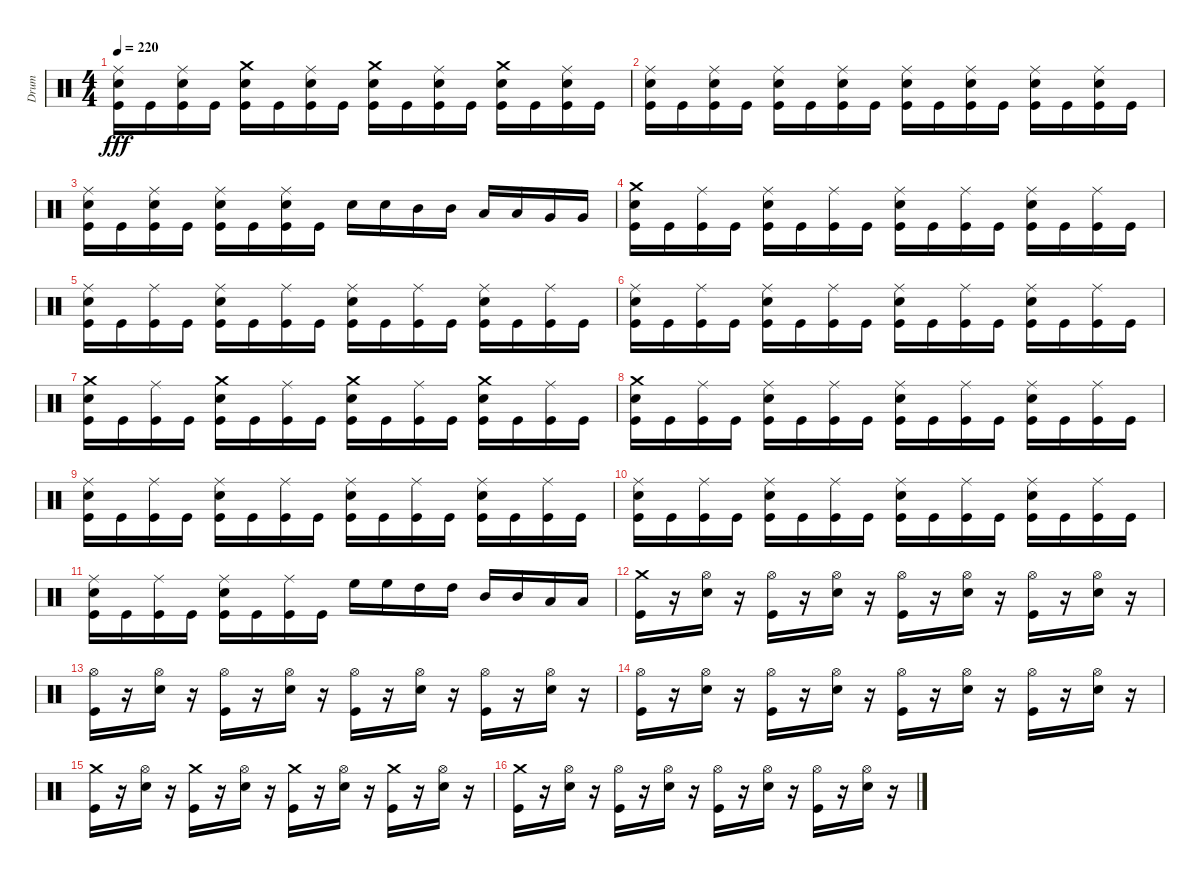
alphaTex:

\track ("Drum" "Drum") {instrument percussion}
\staff {score}
\articulation defaults
\ts (4 4)
\tempo 220
\clef neutral
\ks c
("Snare (hit) 2" "Kick (hit)" "Ride (middle)").16{dy fff} "Kick (hit)".16 ("Kick (hit)" "Snare (hit) 2" "Ride (middle)").16 "Kick (hit)".16 ("Snare (hit) 2" "Kick (hit)" "Crash medium (hit)").16 "Kick (hit)".16 ("Snare (hit) 2" "Kick (hit)" "Ride (middle)").16 "Kick (hit)".16 ("Snare (hit) 2" "Crash medium (hit)" "Kick (hit)").16 "Kick (hit)".16 ("Ride (middle)" "Snare (hit) 2" "Kick (hit)").16 "Kick (hit)".16 ("Snare (hit) 2" "Kick (hit)" "Crash medium (hit)").16 "Kick (hit)".16 ("Kick (hit)" "Snare (hit) 2" "Ride (middle)").16 "Kick (hit)".16 |
("Kick (hit)" "Ride (middle)" "Snare (hit) 2").16 "Kick (hit)".16 ("Kick (hit)" "Ride (middle)" "Snare (hit) 2").16 "Kick (hit)".16 ("Snare (hit) 2" "Kick (hit)" "Ride (middle)").16 "Kick (hit)".16 ("Snare (hit) 2" "Kick (hit)" "Ride (middle)").16 "Kick (hit)".16 ("Ride (middle)" "Snare (hit) 2" "Kick (hit)").16 "Kick (hit)".16 ("Kick (hit)" "Ride (middle)" "Snare (hit) 2").16 "Kick (hit)".16 ("Snare (hit) 2" "Ride (middle)" "Kick (hit)").16 "Kick (hit)".16 ("Snare (hit) 2" "Ride (middle)" "Kick (hit)").16 "Kick (hit)".16 |
("Snare (hit) 2" "Kick (hit)" "Ride (middle)").16 "Kick (hit)".16 ("Snare (hit) 2" "Ride (middle)" "Kick (hit)").16 "Kick (hit)".16 ("Snare (hit) 2" "Kick (hit)" "Ride (middle)").16 "Kick (hit)".16 ("Kick (hit)" "Snare (hit) 2" "Ride (middle)").16 "Kick (hit)".16 "Snare (hit) 2".16 "Snare (hit) 2".16 "Mid Tom (hit)".16 "Mid Tom (hit)".16 "Low Tom (hit)".16 "Low Tom (hit)".16 "Very Low Tom (hit)".16 "Very Low Tom (hit)".16 |
("Kick (hit)" "Crash medium (hit)" "Snare (hit) 2").16 "Kick (hit)".16 ("Ride (middle)" "Kick (hit)").16 "Kick (hit)".16 ("Snare (hit) 2" "Kick (hit)" "Ride (middle)").16 "Kick (hit)".16 ("Ride (middle)" "Kick (hit)").16 "Kick (hit)".16 ("Ride (middle)" "Kick (hit)" "Snare (hit) 2").16 "Kick (hit)".16 ("Ride (middle)" "Kick (hit)").16 "Kick (hit)".16 ("Kick (hit)" "Ride (middle)" "Snare (hit) 2").16 "Kick (hit)".16 ("Kick (hit)" "Ride (middle)").16 "Kick (hit)".16 |
("Kick (hit)" "Ride (middle)" "Snare (hit) 2").16 "Kick (hit)".16 ("Kick (hit)" "Ride (middle)").16 "Kick (hit)".16 ("Snare (hit) 2" "Kick (hit)" "Ride (middle)").16 "Kick (hit)".16 ("Kick (hit)" "Ride (middle)").16 "Kick (hit)".16 ("Ride (middle)" "Kick (hit)" "Snare (hit) 2").16 "Kick (hit)".16 ("Ride (middle)" "Kick (hit)").16 "Kick (hit)".16 ("Ride (middle)" "Snare (hit) 2" "Kick (hit)").16 "Kick (hit)".16 ("Kick (hit)" "Ride (middle)").16 "Kick (hit)".16 |
("Snare (hit) 2" "Ride (middle)" "Kick (hit)").16 "Kick (hit)".16 ("Ride (middle)" "Kick (hit)").16 "Kick (hit)".16 ("Ride (middle)" "Kick (hit)" "Snare (hit) 2").16 "Kick (hit)".16 ("Ride (middle)" "Kick (hit)").16 "Kick (hit)".16 ("Snare (hit) 2" "Ride (middle)" "Kick (hit)").16 "Kick (hit)".16 ("Kick (hit)" "Ride (middle)").16 "Kick (hit)".16 ("Kick (hit)" "Snare (hit) 2" "Ride (middle)").16 "Kick (hit)".16 ("Ride (middle)" "Kick (hit)").16 "Kick (hit)".16 |
("Kick (hit)" "Crash medium (hit)" "Snare (hit) 2").16 "Kick (hit)".16 ("Kick (hit)" "Ride (middle)").16 "Kick (hit)".16 ("Snare (hit) 2" "Crash medium (hit)" "Kick (hit)").16 "Kick (hit)".16 ("Ride (middle)" "Kick (hit)").16 "Kick (hit)".16 ("Crash medium (hit)" "Snare (hit) 2" "Kick (hit)").16 "Kick (hit)".16 ("Ride (middle)" "Kick (hit)").16 "Kick (hit)".16 ("Crash medium (hit)" "Snare (hit) 2" "Kick (hit)").16 "Kick (hit)".16 ("Ride (middle)" "Kick (hit)").16 "Kick (hit)".16 |
("Crash medium (hit)" "Kick (hit)" "Snare (hit) 2").16 "Kick (hit)".16 ("Ride (middle)" "Kick (hit)").16 "Kick (hit)".16 ("Snare (hit) 2" "Ride (middle)" "Kick (hit)").16 "Kick (hit)".16 ("Kick (hit)" "Ride (middle)").16 "Kick (hit)".16 ("Kick (hit)" "Snare (hit) 2" "Ride (middle)").16 "Kick (hit)".16 ("Kick (hit)" "Ride (middle)").16 "Kick (hit)".16 ("Kick (hit)" "Ride (middle)" "Snare (hit) 2").16 "Kick (hit)".16 ("Ride (middle)" "Kick (hit)").16 "Kick (hit)".16 |
("Ride (middle)" "Snare (hit) 2" "Kick (hit)").16 "Kick (hit)".16 ("Ride (middle)" "Kick (hit)").16 "Kick (hit)".16 ("Kick (hit)" "Snare (hit) 2" "Ride (middle)").16 "Kick (hit)".16 ("Kick (hit)" "Ride (middle)").16 "Kick (hit)".16 ("Snare (hit) 2" "Ride (middle)" "Kick (hit)").16 "Kick (hit)".16 ("Ride (middle)" "Kick (hit)").16 "Kick (hit)".16 ("Kick (hit)" "Ride (middle)" "Snare (hit) 2").16 "Kick (hit)".16 ("Ride (middle)" "Kick (hit)").16 "Kick (hit)".16 |
("Ride (middle)" "Kick (hit)" "Snare (hit) 2").16 "Kick (hit)".16 ("Ride (middle)" "Kick (hit)").16 "Kick (hit)".16 ("Kick (hit)" "Ride (middle)" "Snare (hit) 2").16 "Kick (hit)".16 ("Ride (middle)" "Kick (hit)").16 "Kick (hit)".16 ("Snare (hit) 2" "Kick (hit)" "Ride (middle)").16 "Kick (hit)".16 ("Ride (middle)" "Kick (hit)").16 "Kick (hit)".16 ("Kick (hit)" "Snare (hit) 2" "Ride (middle)").16 "Kick (hit)".16 ("Kick (hit)" "Ride (middle)").16 "Kick (hit)".16 |
("Ride (middle)" "Kick (hit)" "Snare (hit) 2").16 "Kick (hit)".16 ("Ride (middle)" "Kick (hit)").16 "Kick (hit)".16 ("Snare (hit) 2" "Kick (hit)" "Ride (middle)").16 "Kick (hit)".16 ("Ride (middle)" "Kick (hit)").16 "Kick (hit)".16 "High Floor Tom (hit)".16 "High Floor Tom (hit)".16 "High Tom (hit)".16 "High Tom (hit)".16 "Mid Tom (hit)".16 "Mid Tom (hit)".16 "Low Tom (hit)".16 "Low Tom (hit)".16 |
("Kick (hit)" "Crash medium (hit)").16 r.16 ("Hi-Hat (open)" "Snare (hit) 2").16 r.16 ("Kick (hit)" "Hi-Hat (open)").16 r.16 ("Hi-Hat (open)" "Snare (hit) 2").16 r.16 ("Hi-Hat (open)" "Kick (hit)").16 r.16 ("Hi-Hat (open)" "Snare (hit) 2").16 r.16 ("Hi-Hat (open)" "Kick (hit)").16 r.16 ("Hi-Hat (open)" "Snare (hit) 2").16 r.16 |
("Hi-Hat (open)" "Kick (hit)").16 r.16 ("Hi-Hat (open)" "Snare (hit) 2").16 r.16 ("Hi-Hat (open)" "Kick (hit)").16 r.16 ("Hi-Hat (open)" "Snare (hit) 2").16 r.16 ("Hi-Hat (open)" "Kick (hit)").16 r.16 ("Snare (hit) 2" "Hi-Hat (open)").16 r.16 ("Kick (hit)" "Hi-Hat (open)").16 r.16 ("Snare (hit) 2" "Hi-Hat (open)").16 r.16 |
("Kick (hit)" "Hi-Hat (open)").16 r.16 ("Hi-Hat (open)" "Snare (hit) 2").16 r.16 ("Kick (hit)" "Hi-Hat (open)").16 r.16 ("Hi-Hat (open)" "Snare (hit) 2").16 r.16 ("Kick (hit)" "Hi-Hat (open)").16 r.16 ("Snare (hit) 2" "Hi-Hat (open)").16 r.16 ("Kick (hit)" "Hi-Hat (open)").16 r.16 ("Hi-Hat (open)" "Snare (hit) 2").16 r.16 |
("Crash medium (hit)" "Kick (hit)").16 r.16 ("Hi-Hat (open)" "Snare (hit) 2").16 r.16 ("Crash medium (hit)" "Kick (hit)").16 r.16 ("Snare (hit) 2" "Hi-Hat (open)").16 r.16 ("Crash medium (hit)" "Kick (hit)").16 r.16 ("Hi-Hat (open)" "Snare (hit) 2").16 r.16 ("Crash medium (hit)" "Kick (hit)").16 r.16 ("Snare (hit) 2" "Hi-Hat (open)").16 r.16 |
("Crash medium (hit)" "Kick (hit)").16 r.16 ("Hi-Hat (open)" "Snare (hit) 2").16 r.16 ("Kick (hit)" "Hi-Hat (open)").16 r.16 ("Snare (hit) 2" "Hi-Hat (open)").16 r.16 ("Hi-Hat (open)" "Kick (hit)").16 r.16 ("Hi-Hat (open)" "Snare (hit) 2").16 r.16 ("Hi-Hat (open)" "Kick (hit)").16 r.16 ("Hi-Hat (open)" "Snare (hit) 2").16 r.16
